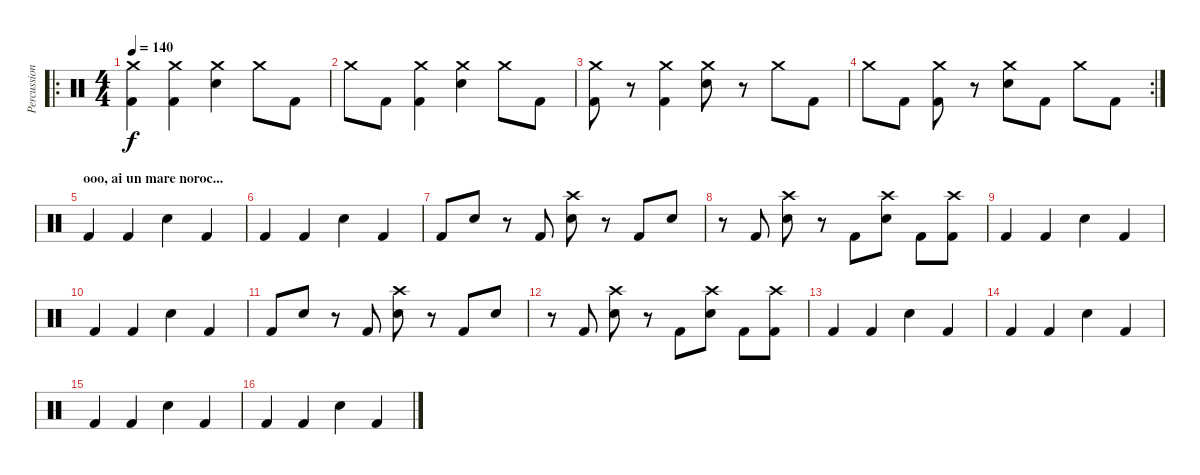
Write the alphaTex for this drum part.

\track ("Percussion" "Percussion") {instrument percussion}
\staff {score}
\articulation defaults
\ro
\ts (4 4)
\tempo 140
\clef neutral
\ks c
("Kick (hit) 2" "Crash medium (hit)").4{dy f} ("Kick (hit) 2" "Crash medium (hit)").4 ("Snare (hit) 2" "Crash medium (hit)").4 "Crash medium (hit)".8 "Kick (hit) 2".8 |
"Crash medium (hit)".8 "Kick (hit) 2".8 ("Kick (hit) 2" "Crash medium (hit)").4 ("Snare (hit) 2" "Crash medium (hit)").4 "Crash medium (hit)".8 "Kick (hit) 2".8 |
("Kick (hit) 2" "Crash medium (hit)").8 r.8 ("Kick (hit) 2" "Crash medium (hit)").4 ("Snare (hit) 2" "Crash medium (hit)").8 r.8 "Crash medium (hit)".8 "Kick (hit) 2".8 |
\rc 2 "Crash medium (hit)".8 "Kick (hit) 2".8
("Kick (hit) 2" "Crash medium (hit)").8 r.8 ("Snare (hit) 2" "Crash medium (hit)").8 "Kick (hit) 2".8 "Crash medium (hit)".8 "Kick (hit) 2".8 |
\section ("" "ooo, ai un mare noroc...")
"Kick (hit) 2".4 "Kick (hit) 2".4 "Snare (hit) 2".4 "Kick (hit) 2".4 |
"Kick (hit) 2".4 "Kick (hit) 2".4 "Snare (hit) 2".4 "Kick (hit) 2".4 |
"Kick (hit) 2".8 "Snare (hit) 2".8 r.8 "Kick (hit) 2".8 ("Snare (hit) 2" "Crash high (hit)").8 r.8 "Kick (hit) 2".8 "Snare (hit) 2".8 |
r.8 "Kick (hit) 2".8 ("Snare (hit) 2" "Crash high (hit)").8 r.8 "Kick (hit) 2".8 ("Snare (hit) 2" "Crash high (hit)").8 "Kick (hit) 2".8 ("Kick (hit) 2" "Crash high (hit)").8 |
"Kick (hit) 2".4 "Kick (hit) 2".4 "Snare (hit) 2".4 "Kick (hit) 2".4 |
"Kick (hit) 2".4 "Kick (hit) 2".4 "Snare (hit) 2".4 "Kick (hit) 2".4 |
"Kick (hit) 2".8 "Snare (hit) 2".8 r.8 "Kick (hit) 2".8 ("Snare (hit) 2" "Crash high (hit)").8 r.8 "Kick (hit) 2".8 "Snare (hit) 2".8 |
r.8 "Kick (hit) 2".8 ("Snare (hit) 2" "Crash high (hit)").8 r.8 "Kick (hit) 2".8 ("Snare (hit) 2" "Crash high (hit)").8 "Kick (hit) 2".8 ("Kick (hit) 2" "Crash high (hit)").8 |
"Kick (hit) 2".4 "Kick (hit) 2".4 "Snare (hit) 2".4 "Kick (hit) 2".4 |
"Kick (hit) 2".4 "Kick (hit) 2".4 "Snare (hit) 2".4 "Kick (hit) 2".4 |
"Kick (hit) 2".4 "Kick (hit) 2".4 "Snare (hit) 2".4 "Kick (hit) 2".4 |
"Kick (hit) 2".4 "Kick (hit) 2".4 "Snare (hit) 2".4 "Kick (hit) 2".4
